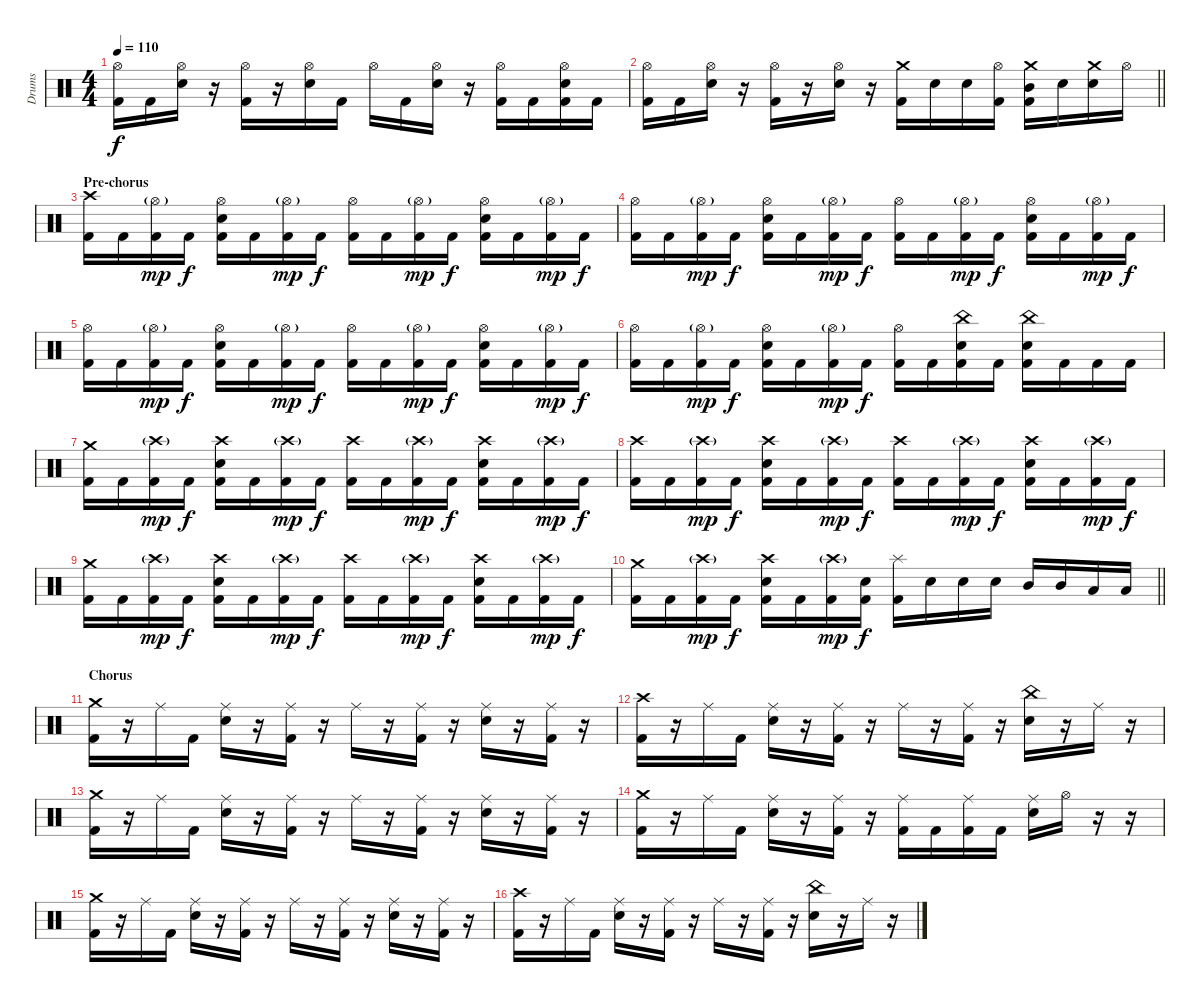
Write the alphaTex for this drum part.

\track ("Drums" "Drums") {instrument percussion}
\staff {score}
\articulation defaults
\ts (4 4)
\tempo 110
\clef neutral
\ks c
("Kick (hit) 2" "Hi-Hat (open)").16{dy f} "Kick (hit) 2".16 ("Hi-Hat (open)" "Electric Snare (hit)").16 r.16 ("Kick (hit) 2" "Hi-Hat (open)").16 r.16 ("Electric Snare (hit)" "Hi-Hat (open)").16 "Kick (hit) 2".16 "Hi-Hat (open)".16 "Kick (hit) 2".16 ("Electric Snare (hit)" "Hi-Hat (open)").16 r.16 ("Kick (hit) 2" "Hi-Hat (open)").16 "Kick (hit) 2".16 ("Kick (hit) 2" "Electric Snare (hit)" "Hi-Hat (open)").16 "Kick (hit) 2".16 |
\barLineRight lightlight
("Kick (hit) 2" "Hi-Hat (open)").16 "Kick (hit) 2".16 ("Hi-Hat (open)" "Electric Snare (hit)").16 r.16 ("Kick (hit) 2" "Hi-Hat (open)").16 r.16 ("Electric Snare (hit)" "Hi-Hat (open)").16 r.16 ("Crash medium (hit)" "Kick (hit) 2").16 "Electric Snare (hit)".16 "Electric Snare (hit)".16 ("Hi-Hat (open)" "Kick (hit) 2").16 ("Crash medium (hit)" "Kick (hit) 2" "Mid Tom (hit)").16 "Electric Snare (hit)".16 ("Electric Snare (hit)" "Crash medium (hit)").16 "Hi-Hat (open)".16 |
\section ("" "Pre-chorus")
("Kick (hit) 2" "Crash high (hit)").16 "Kick (hit) 2".16 ("Kick (hit) 2" "Hi-Hat (open)"{g}).16{dy mp} "Kick (hit) 2".16{dy f} ("Kick (hit) 2" "Electric Snare (hit)" "Hi-Hat (open)").16 "Kick (hit) 2".16 ("Kick (hit) 2" "Hi-Hat (open)"{g}).16{dy mp} "Kick (hit) 2".16{dy f} ("Kick (hit) 2" "Hi-Hat (open)").16 "Kick (hit) 2".16 ("Kick (hit) 2" "Hi-Hat (open)"{g}).16{dy mp} "Kick (hit) 2".16{dy f} ("Kick (hit) 2" "Electric Snare (hit)" "Hi-Hat (open)").16 "Kick (hit) 2".16 ("Kick (hit) 2" "Hi-Hat (open)"{g}).16{dy mp} "Kick (hit) 2".16{dy f} |
("Kick (hit) 2" "Hi-Hat (open)").16 "Kick (hit) 2".16 ("Kick (hit) 2" "Hi-Hat (open)"{g}).16{dy mp} "Kick (hit) 2".16{dy f} ("Kick (hit) 2" "Electric Snare (hit)" "Hi-Hat (open)").16 "Kick (hit) 2".16 ("Kick (hit) 2" "Hi-Hat (open)"{g}).16{dy mp} "Kick (hit) 2".16{dy f} ("Kick (hit) 2" "Hi-Hat (open)").16 "Kick (hit) 2".16 ("Kick (hit) 2" "Hi-Hat (open)"{g}).16{dy mp} "Kick (hit) 2".16{dy f} ("Kick (hit) 2" "Electric Snare (hit)" "Hi-Hat (open)").16 "Kick (hit) 2".16 ("Kick (hit) 2" "Hi-Hat (open)"{g}).16{dy mp} "Kick (hit) 2".16{dy f} |
("Kick (hit) 2" "Hi-Hat (open)").16 "Kick (hit) 2".16 ("Kick (hit) 2" "Hi-Hat (open)"{g}).16{dy mp} "Kick (hit) 2".16{dy f} ("Kick (hit) 2" "Electric Snare (hit)" "Hi-Hat (open)").16 "Kick (hit) 2".16 ("Kick (hit) 2" "Hi-Hat (open)"{g}).16{dy mp} "Kick (hit) 2".16{dy f} ("Kick (hit) 2" "Hi-Hat (open)").16 "Kick (hit) 2".16 ("Kick (hit) 2" "Hi-Hat (open)"{g}).16{dy mp} "Kick (hit) 2".16{dy f} ("Kick (hit) 2" "Electric Snare (hit)" "Hi-Hat (open)").16 "Kick (hit) 2".16 ("Kick (hit) 2" "Hi-Hat (open)"{g}).16{dy mp} "Kick (hit) 2".16{dy f} |
("Kick (hit) 2" "Hi-Hat (open)").16 "Kick (hit) 2".16 ("Kick (hit) 2" "Hi-Hat (open)"{g}).16{dy mp} "Kick (hit) 2".16{dy f} ("Kick (hit) 2" "Electric Snare (hit)" "Hi-Hat (open)").16 "Kick (hit) 2".16 ("Kick (hit) 2" "Hi-Hat (open)"{g}).16{dy mp} "Kick (hit) 2".16{dy f} ("Kick (hit) 2" "Hi-Hat (open)").16 "Kick (hit) 2".16 ("Kick (hit) 2" "China (hit)" "Electric Snare (hit)").16 "Kick (hit) 2".16 ("Kick (hit) 2" "Electric Snare (hit)" "China (hit)").16 "Kick (hit) 2".16 "Kick (hit) 2".16 "Kick (hit) 2".16 |
("Kick (hit) 2" "Crash medium (hit)").16 "Kick (hit) 2".16 ("Kick (hit) 2" "Crash high (hit)"{g}).16{dy mp} "Kick (hit) 2".16{dy f} ("Kick (hit) 2" "Electric Snare (hit)" "Crash high (hit)").16 "Kick (hit) 2".16 ("Kick (hit) 2" "Crash high (hit)"{g}).16{dy mp} "Kick (hit) 2".16{dy f} ("Kick (hit) 2" "Crash high (hit)").16 "Kick (hit) 2".16 ("Kick (hit) 2" "Crash high (hit)"{g}).16{dy mp} "Kick (hit) 2".16{dy f} ("Kick (hit) 2" "Electric Snare (hit)" "Crash high (hit)").16 "Kick (hit) 2".16 ("Kick (hit) 2" "Crash high (hit)"{g}).16{dy mp} "Kick (hit) 2".16{dy f} |
("Kick (hit) 2" "Crash high (hit)").16 "Kick (hit) 2".16 ("Kick (hit) 2" "Crash high (hit)"{g}).16{dy mp} "Kick (hit) 2".16{dy f} ("Kick (hit) 2" "Electric Snare (hit)" "Crash high (hit)").16 "Kick (hit) 2".16 ("Kick (hit) 2" "Crash high (hit)"{g}).16{dy mp} "Kick (hit) 2".16{dy f} ("Kick (hit) 2" "Crash high (hit)").16 "Kick (hit) 2".16 ("Kick (hit) 2" "Crash high (hit)"{g}).16{dy mp} "Kick (hit) 2".16{dy f} ("Kick (hit) 2" "Electric Snare (hit)" "Crash high (hit)").16 "Kick (hit) 2".16 ("Kick (hit) 2" "Crash high (hit)"{g}).16{dy mp} "Kick (hit) 2".16{dy f} |
("Kick (hit) 2" "Crash medium (hit)").16 "Kick (hit) 2".16 ("Kick (hit) 2" "Crash high (hit)"{g}).16{dy mp} "Kick (hit) 2".16{dy f} ("Kick (hit) 2" "Electric Snare (hit)" "Crash high (hit)").16 "Kick (hit) 2".16 ("Kick (hit) 2" "Crash high (hit)"{g}).16{dy mp} "Kick (hit) 2".16{dy f} ("Kick (hit) 2" "Crash high (hit)").16 "Kick (hit) 2".16 ("Kick (hit) 2" "Crash high (hit)"{g}).16{dy mp} "Kick (hit) 2".16{dy f} ("Kick (hit) 2" "Electric Snare (hit)" "Crash high (hit)").16 "Kick (hit) 2".16 ("Kick (hit) 2" "Crash high (hit)"{g}).16{dy mp} "Kick (hit) 2".16{dy f} |
\barLineRight lightlight
("Kick (hit) 2" "Crash medium (hit)").16 "Kick (hit) 2".16 ("Kick (hit) 2" "Crash high (hit)"{g}).16{dy mp} "Kick (hit) 2".16{dy f} ("Kick (hit) 2" "Electric Snare (hit)" "Crash high (hit)").16 "Kick (hit) 2".16 ("Kick (hit) 2" "Crash high (hit)"{g}).16{dy mp} ("Kick (hit) 2" "Electric Snare (hit)").16{dy f} ("Kick (hit) 2" "Splash (hit)").16 "Electric Snare (hit)".16 "Electric Snare (hit)".16 "Electric Snare (hit)".16 "Mid Tom (hit)".16 "Mid Tom (hit)".16 "Low Tom (hit)".16 "Low Tom (hit)".16 |
\section ("" "Chorus")
("Crash medium (hit)" "Kick (hit) 2").16 r.16 "Ride (middle)".16 "Kick (hit) 2".16 ("Electric Snare (hit)" "Ride (middle)").16 r.16 ("Ride (middle)" "Kick (hit) 2").16 r.16 "Ride (middle)".16 r.16 ("Ride (middle)" "Kick (hit) 2").16 r.16 ("Electric Snare (hit)" "Ride (middle)").16 r.16 ("Ride (middle)" "Kick (hit) 2").16 r.16 |
("Crash high (hit)" "Kick (hit) 2").16 r.16 "Ride (middle)".16 "Kick (hit) 2".16 ("Electric Snare (hit)" "Ride (middle)").16 r.16 ("Ride (middle)" "Kick (hit) 2").16 r.16 "Ride (middle)".16 r.16 ("Ride (middle)" "Kick (hit) 2").16 r.16 ("Electric Snare (hit)" "China (hit)").16 r.16 "Ride (middle)".16 r.16 |
("Crash medium (hit)" "Kick (hit) 2").16 r.16 "Ride (middle)".16 "Kick (hit) 2".16 ("Electric Snare (hit)" "Ride (middle)").16 r.16 ("Ride (middle)" "Kick (hit) 2").16 r.16 "Ride (middle)".16 r.16 ("Ride (middle)" "Kick (hit) 2").16 r.16 ("Electric Snare (hit)" "Ride (middle)").16 r.16 ("Ride (middle)" "Kick (hit) 2").16 r.16 |
("Crash medium (hit)" "Kick (hit) 2").16 r.16 "Ride (middle)".16 "Kick (hit) 2".16 ("Electric Snare (hit)" "Ride (middle)").16 r.16 ("Ride (middle)" "Kick (hit) 2").16 r.16 ("Kick (hit) 2" "Ride (middle)").16 "Kick (hit) 2".16 ("Ride (middle)" "Kick (hit) 2").16 "Kick (hit) 2".16 ("Electric Snare (hit)" "Ride (middle)").16 "Hi-Hat (open)".16 r.16 r.16 |
("Crash medium (hit)" "Kick (hit) 2").16 r.16 "Ride (middle)".16 "Kick (hit) 2".16 ("Electric Snare (hit)" "Ride (middle)").16 r.16 ("Ride (middle)" "Kick (hit) 2").16 r.16 "Ride (middle)".16 r.16 ("Ride (middle)" "Kick (hit) 2").16 r.16 ("Electric Snare (hit)" "Ride (middle)").16 r.16 ("Ride (middle)" "Kick (hit) 2").16 r.16 |
("Crash high (hit)" "Kick (hit) 2").16 r.16 "Ride (middle)".16 "Kick (hit) 2".16 ("Electric Snare (hit)" "Ride (middle)").16 r.16 ("Ride (middle)" "Kick (hit) 2").16 r.16 "Ride (middle)".16 r.16 ("Ride (middle)" "Kick (hit) 2").16 r.16 ("Electric Snare (hit)" "China (hit)").16 r.16 "Ride (middle)".16 r.16
